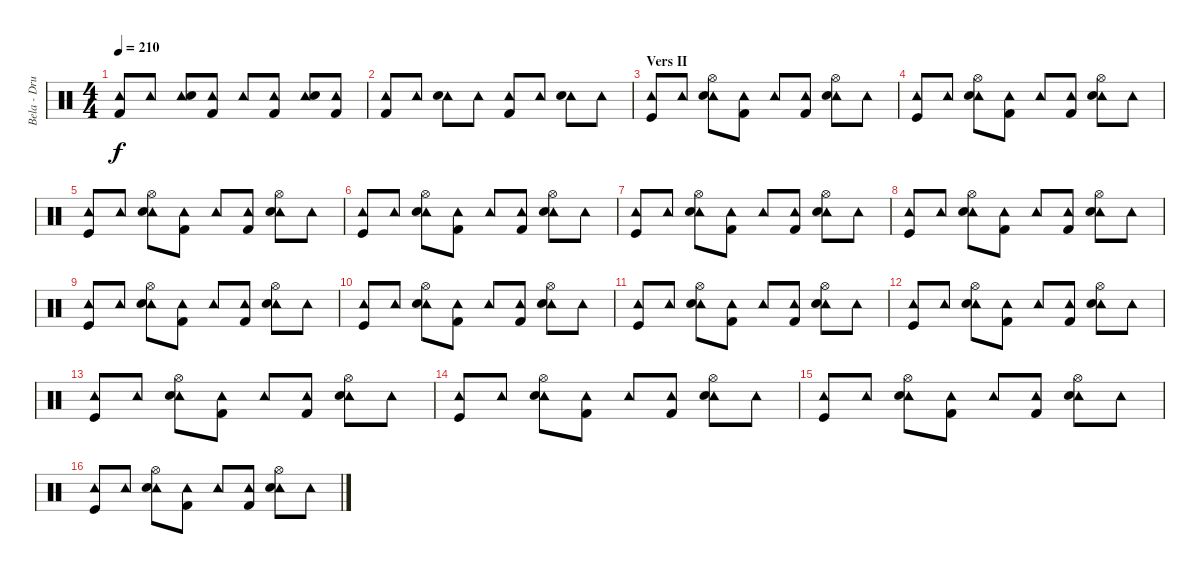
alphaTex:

\track ("Bela - Drums" "Bela - Dru") {instrument percussion}
\staff {score}
\articulation defaults
\ts (4 4)
\tempo 210
\clef neutral
\ks c
("Tambourine (hit)" "Kick (hit) 2").8{dy f} "Tambourine (hit)".8 ("Tambourine (hit)" "Electric Snare (hit)").8 ("Tambourine (hit)" "Kick (hit) 2").8 "Tambourine (hit)".8 ("Tambourine (hit)" "Kick (hit) 2").8 ("Tambourine (hit)" "Electric Snare (hit)").8 ("Tambourine (hit)" "Kick (hit) 2").8 |
("Tambourine (hit)" "Kick (hit) 2").8 "Tambourine (hit)".8 ("Tambourine (hit)" "Electric Snare (hit)").8 "Tambourine (hit)".8 ("Tambourine (hit)" "Kick (hit) 2").8 "Tambourine (hit)".8 ("Tambourine (hit)" "Electric Snare (hit)").8 "Tambourine (hit)".8 |
\section ("" "Vers II")
("Tambourine (hit)" "Kick (hit)").8 "Tambourine (hit)".8 ("Tambourine (hit)" "Electric Snare (hit)" "Hi-Hat (open)").8 ("Tambourine (hit)" "Kick (hit) 2").8 "Tambourine (hit)".8 ("Tambourine (hit)" "Kick (hit) 2").8 ("Tambourine (hit)" "Electric Snare (hit)" "Hi-Hat (open)").8 "Tambourine (hit)".8 |
("Tambourine (hit)" "Kick (hit)").8 "Tambourine (hit)".8 ("Tambourine (hit)" "Electric Snare (hit)" "Hi-Hat (open)").8 ("Tambourine (hit)" "Kick (hit) 2").8 "Tambourine (hit)".8 ("Tambourine (hit)" "Kick (hit) 2").8 ("Tambourine (hit)" "Electric Snare (hit)" "Hi-Hat (open)").8 "Tambourine (hit)".8 |
("Tambourine (hit)" "Kick (hit)").8 "Tambourine (hit)".8 ("Tambourine (hit)" "Electric Snare (hit)" "Hi-Hat (open)").8 ("Tambourine (hit)" "Kick (hit) 2").8 "Tambourine (hit)".8 ("Tambourine (hit)" "Kick (hit) 2").8 ("Tambourine (hit)" "Electric Snare (hit)" "Hi-Hat (open)").8 "Tambourine (hit)".8 |
("Tambourine (hit)" "Kick (hit)").8 "Tambourine (hit)".8 ("Tambourine (hit)" "Electric Snare (hit)" "Hi-Hat (open)").8 ("Tambourine (hit)" "Kick (hit) 2").8 "Tambourine (hit)".8 ("Tambourine (hit)" "Kick (hit) 2").8 ("Tambourine (hit)" "Electric Snare (hit)" "Hi-Hat (open)").8 "Tambourine (hit)".8 |
("Tambourine (hit)" "Kick (hit)").8 "Tambourine (hit)".8 ("Tambourine (hit)" "Electric Snare (hit)" "Hi-Hat (open)").8 ("Tambourine (hit)" "Kick (hit) 2").8 "Tambourine (hit)".8 ("Tambourine (hit)" "Kick (hit) 2").8 ("Tambourine (hit)" "Electric Snare (hit)" "Hi-Hat (open)").8 "Tambourine (hit)".8 |
("Tambourine (hit)" "Kick (hit)").8 "Tambourine (hit)".8 ("Tambourine (hit)" "Electric Snare (hit)" "Hi-Hat (open)").8 ("Tambourine (hit)" "Kick (hit) 2").8 "Tambourine (hit)".8 ("Tambourine (hit)" "Kick (hit) 2").8 ("Tambourine (hit)" "Electric Snare (hit)" "Hi-Hat (open)").8 "Tambourine (hit)".8 |
("Tambourine (hit)" "Kick (hit)").8 "Tambourine (hit)".8 ("Tambourine (hit)" "Electric Snare (hit)" "Hi-Hat (open)").8 ("Tambourine (hit)" "Kick (hit) 2").8 "Tambourine (hit)".8 ("Tambourine (hit)" "Kick (hit) 2").8 ("Tambourine (hit)" "Electric Snare (hit)" "Hi-Hat (open)").8 "Tambourine (hit)".8 |
("Tambourine (hit)" "Kick (hit)").8 "Tambourine (hit)".8 ("Tambourine (hit)" "Electric Snare (hit)" "Hi-Hat (open)").8 ("Tambourine (hit)" "Kick (hit) 2").8 "Tambourine (hit)".8 ("Tambourine (hit)" "Kick (hit) 2").8 ("Tambourine (hit)" "Electric Snare (hit)" "Hi-Hat (open)").8 "Tambourine (hit)".8 |
("Tambourine (hit)" "Kick (hit)").8 "Tambourine (hit)".8 ("Tambourine (hit)" "Electric Snare (hit)" "Hi-Hat (open)").8 ("Tambourine (hit)" "Kick (hit) 2").8 "Tambourine (hit)".8 ("Tambourine (hit)" "Kick (hit) 2").8 ("Tambourine (hit)" "Electric Snare (hit)" "Hi-Hat (open)").8 "Tambourine (hit)".8 |
("Tambourine (hit)" "Kick (hit)").8 "Tambourine (hit)".8 ("Tambourine (hit)" "Electric Snare (hit)" "Hi-Hat (open)").8 ("Tambourine (hit)" "Kick (hit) 2").8 "Tambourine (hit)".8 ("Tambourine (hit)" "Kick (hit) 2").8 ("Tambourine (hit)" "Electric Snare (hit)" "Hi-Hat (open)").8 "Tambourine (hit)".8 |
("Tambourine (hit)" "Kick (hit)").8 "Tambourine (hit)".8 ("Tambourine (hit)" "Electric Snare (hit)" "Hi-Hat (open)").8 ("Tambourine (hit)" "Kick (hit) 2").8 "Tambourine (hit)".8 ("Tambourine (hit)" "Kick (hit) 2").8 ("Tambourine (hit)" "Electric Snare (hit)" "Hi-Hat (open)").8 "Tambourine (hit)".8 |
("Tambourine (hit)" "Kick (hit)").8 "Tambourine (hit)".8 ("Tambourine (hit)" "Electric Snare (hit)" "Hi-Hat (open)").8 ("Tambourine (hit)" "Kick (hit) 2").8 "Tambourine (hit)".8 ("Tambourine (hit)" "Kick (hit) 2").8 ("Tambourine (hit)" "Electric Snare (hit)" "Hi-Hat (open)").8 "Tambourine (hit)".8 |
("Tambourine (hit)" "Kick (hit)").8 "Tambourine (hit)".8 ("Tambourine (hit)" "Electric Snare (hit)" "Hi-Hat (open)").8 ("Tambourine (hit)" "Kick (hit) 2").8 "Tambourine (hit)".8 ("Tambourine (hit)" "Kick (hit) 2").8 ("Tambourine (hit)" "Electric Snare (hit)" "Hi-Hat (open)").8 "Tambourine (hit)".8 |
("Tambourine (hit)" "Kick (hit)").8 "Tambourine (hit)".8 ("Tambourine (hit)" "Electric Snare (hit)" "Hi-Hat (open)").8 ("Tambourine (hit)" "Kick (hit) 2").8 "Tambourine (hit)".8 ("Tambourine (hit)" "Kick (hit) 2").8 ("Tambourine (hit)" "Electric Snare (hit)" "Hi-Hat (open)").8 "Tambourine (hit)".8
